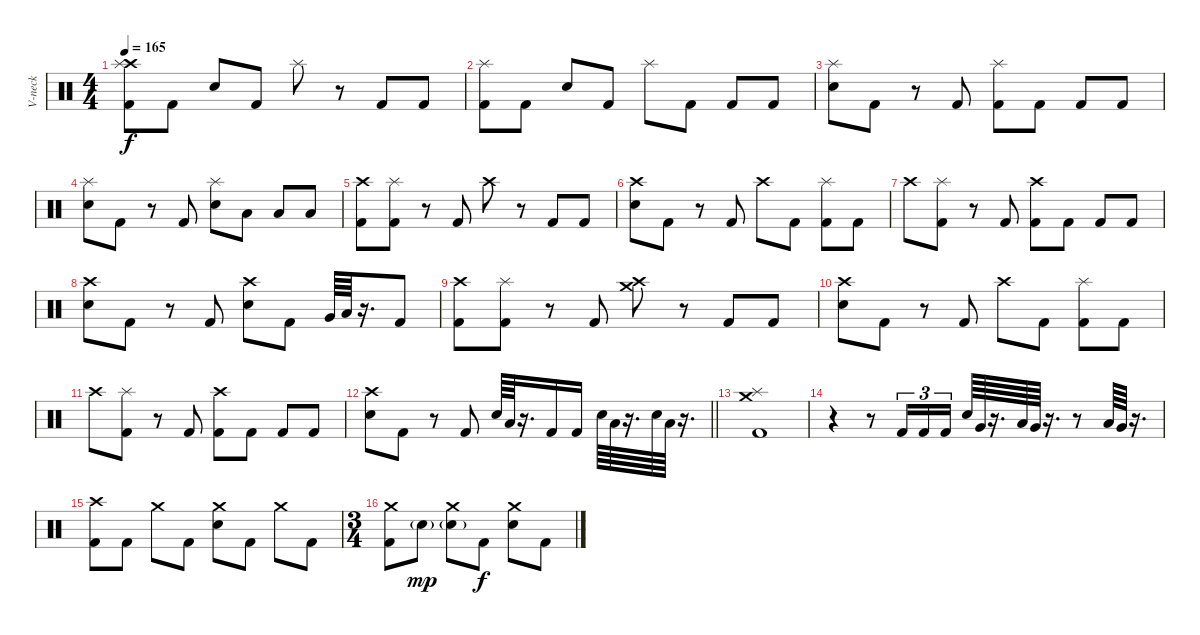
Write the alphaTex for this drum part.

\track ("V-neck" "V-neck") {instrument percussion}
\staff {score}
\articulation defaults
\ts (4 4)
\tempo 165
\clef neutral
\ks c
("Crash high (hit)" "Splash (hit)" "Kick (hit) 2").8{dy f} "Kick (hit) 2".8 "Electric Snare (hit)".8 "Kick (hit) 2".8 "Splash (hit)".8 r.8 "Kick (hit) 2".8 "Kick (hit) 2".8 |
("Splash (hit)" "Kick (hit) 2").8 "Kick (hit) 2".8 "Electric Snare (hit)".8 "Kick (hit) 2".8 "Splash (hit)".8 "Kick (hit) 2".8 "Kick (hit) 2".8 "Kick (hit) 2".8 |
("Splash (hit)" "Electric Snare (hit)").8 "Kick (hit) 2".8 r.8 "Kick (hit) 2".8 ("Splash (hit)" "Kick (hit) 2").8 "Kick (hit) 2".8 "Kick (hit) 2".8 "Kick (hit) 2".8 |
("Splash (hit)" "Electric Snare (hit)").8 "Kick (hit) 2".8 r.8 "Kick (hit) 2".8 ("Splash (hit)" "Electric Snare (hit)").8 "Low Tom (hit)".8 "Low Tom (hit)".8 "Low Tom (hit)".8 |
("Crash high (hit)" "Kick (hit) 2").8 ("Splash (hit)" "Kick (hit) 2").8 r.8 "Kick (hit) 2".8 "Crash high (hit)".8 r.8 "Kick (hit) 2".8 "Kick (hit) 2".8 |
("Crash high (hit)" "Electric Snare (hit)").8 "Kick (hit) 2".8 r.8 "Kick (hit) 2".8 "Crash high (hit)".8 "Kick (hit) 2".8 ("Splash (hit)" "Kick (hit) 2").8 "Kick (hit) 2".8 |
"Crash high (hit)".8 ("Splash (hit)" "Kick (hit) 2").8 r.8 "Kick (hit) 2".8 ("Crash high (hit)" "Kick (hit) 2").8 "Kick (hit) 2".8 "Kick (hit) 2".8 "Kick (hit) 2".8 |
("Crash high (hit)" "Electric Snare (hit)").8 "Kick (hit) 2".8 r.8 "Kick (hit) 2".8 ("Crash high (hit)" "Electric Snare (hit)").8 "Kick (hit) 2".8 "Very Low Tom (hit)".64 "Low Tom (hit)".64 r.16{d} "Kick (hit) 2".8 |
("Crash high (hit)" "Kick (hit) 2").8 ("Splash (hit)" "Kick (hit) 2").8 r.8 "Kick (hit) 2".8 ("Crash medium (hit)" "Crash high (hit)").8 r.8 "Kick (hit) 2".8 "Kick (hit) 2".8 |
("Crash high (hit)" "Electric Snare (hit)").8 "Kick (hit) 2".8 r.8 "Kick (hit) 2".8 "Crash high (hit)".8 "Kick (hit) 2".8 ("Splash (hit)" "Kick (hit) 2").8 "Kick (hit) 2".8 |
"Crash high (hit)".8 ("Splash (hit)" "Kick (hit) 2").8 r.8 "Kick (hit) 2".8 ("Crash high (hit)" "Kick (hit) 2").8 "Kick (hit) 2".8 "Kick (hit) 2".8 "Kick (hit) 2".8 |
\barLineRight lightlight
("Crash high (hit)" "Electric Snare (hit)").8 "Kick (hit) 2".8 r.8 "Kick (hit) 2".8 "Electric Snare (hit)".64 "Low Tom (hit)".64 r.16{d} "Kick (hit) 2".16 "Kick (hit) 2".16 "Electric Snare (hit)".64 "Low Tom (hit)".64 r.16{d} "Electric Snare (hit)".64 "Low Tom (hit)".64 r.16{d} |
\section ("" "")
("Crash medium (hit)" "Splash (hit)" "Kick (hit) 2").1 |
r.4 r.8 "Kick (hit) 2".16{tu (3 2)} "Kick (hit) 2".16{tu (3 2)} "Kick (hit) 2".16{tu (3 2)} "Electric Snare (hit)".64 "Very Low Tom (hit)".64 r.16{d} "Low Floor Tom (hit)".64 "Very Low Tom (hit)".64 r.16{d} r.8 "Low Floor Tom (hit)".64 "Very Low Tom (hit)".64 r.16{d} |
("Crash high (hit)" "Kick (hit) 2").8 "Kick (hit) 2".8 "Crash medium (hit)".8 "Kick (hit) 2".8 ("Crash medium (hit)" "Electric Snare (hit)").8 "Kick (hit) 2".8 "Crash medium (hit)".8 "Kick (hit) 2".8 |
\ts (3 4)
("Crash medium (hit)" "Kick (hit) 2").8 "Electric Snare (hit)"{g}.8{dy mp} ("Crash medium (hit)" "Electric Snare (hit)"{g}).8 "Kick (hit) 2".8{dy f} ("Crash medium (hit)" "Electric Snare (hit)").8 "Kick (hit) 2".8
